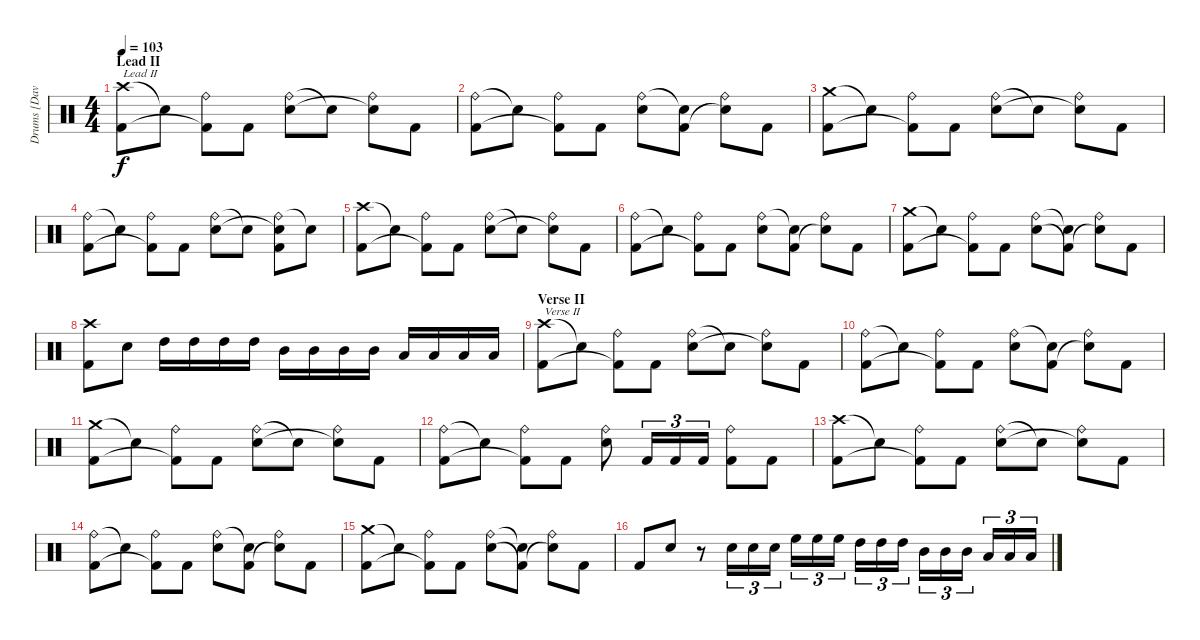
\track ("Drums [Dave Culross]" "Drums [Dav") {instrument percussion}
\staff {score}
\articulation defaults
\ts (4 4)
\section ("" "Lead II")
\tempo 103
\clef neutral
\ks c
("Crash high (hit)" "Kick (hit) 2").8{txt "Lead II" dy f} "Snare (hit)"{t}.8 ("Ride (bell)" "Kick (hit) 2"{t}).8 "Kick (hit) 2".8 ("Ride (bell)" "Electric Snare (hit)").8 "Snare (hit)"{t}.8 ("Ride (bell)" "Snare (hit)"{t}).8 "Kick (hit) 2".8 |
("Ride (bell)" "Kick (hit) 2").8 "Snare (hit)"{t}.8 ("Ride (bell)" "Kick (hit) 2"{t}).8 "Kick (hit) 2".8 ("Ride (bell)" "Electric Snare (hit)").8 ("Snare (hit)"{t} "Kick (hit) 2").8 ("Ride (bell)" "Snare (hit)"{t}).8 "Kick (hit) 2".8 |
("Crash medium (hit)" "Kick (hit) 2").8 "Snare (hit)"{t}.8 ("Ride (bell)" "Kick (hit) 2"{t}).8 "Kick (hit) 2".8 ("Ride (bell)" "Electric Snare (hit)").8 "Snare (hit)"{t}.8 ("Ride (bell)" "Snare (hit)"{t}).8 "Kick (hit) 2".8 |
("Ride (bell)" "Kick (hit) 2").8 "Snare (hit)"{t}.8 ("Ride (bell)" "Kick (hit) 2"{t}).8 "Kick (hit) 2".8 ("Ride (bell)" "Electric Snare (hit)").8 "Snare (hit)"{t}.8 ("Ride (bell)" "Snare (hit)"{t} "Kick (hit) 2").8 "Snare (hit)"{t}.8 |
("Crash high (hit)" "Kick (hit) 2").8 "Snare (hit)"{t}.8 ("Ride (bell)" "Kick (hit) 2"{t}).8 "Kick (hit) 2".8 ("Ride (bell)" "Electric Snare (hit)").8 "Snare (hit)"{t}.8 ("Ride (bell)" "Snare (hit)"{t}).8 "Kick (hit) 2".8 |
("Ride (bell)" "Kick (hit) 2").8 "Snare (hit)"{t}.8 ("Ride (bell)" "Kick (hit) 2"{t}).8 "Kick (hit) 2".8 ("Ride (bell)" "Electric Snare (hit)").8 ("Snare (hit)"{t} "Kick (hit) 2").8 ("Ride (bell)" "Snare (hit)"{t}).8 "Kick (hit) 2".8 |
("Crash medium (hit)" "Kick (hit) 2").8 "Snare (hit)"{t}.8 ("Ride (bell)" "Kick (hit) 2"{t}).8 "Kick (hit) 2".8 ("Ride (bell)" "Electric Snare (hit)").8 ("Snare (hit)"{t} "Kick (hit) 2"{t}).8 ("Ride (bell)" "Snare (hit)"{t}).8 "Kick (hit) 2".8 |
("Crash high (hit)" "Kick (hit) 2").8 "Electric Snare (hit)".8 "High Tom (hit)".16 "High Tom (hit)".16 "High Tom (hit)".16 "High Tom (hit)".16 "Mid Tom (hit)".16 "Mid Tom (hit)".16 "Mid Tom (hit)".16 "Mid Tom (hit)".16 "Low Tom (hit)".16 "Low Tom (hit)".16 "Low Tom (hit)".16 "Low Tom (hit)".16 |
\section ("" "Verse II")
("Crash high (hit)" "Kick (hit) 2").8{txt "Verse II"} "Snare (hit)"{t}.8 ("Ride (bell)" "Kick (hit) 2"{t}).8 "Kick (hit) 2".8 ("Ride (bell)" "Electric Snare (hit)").8 "Snare (hit)"{t}.8 ("Ride (bell)" "Snare (hit)"{t}).8 "Kick (hit) 2".8 |
("Ride (bell)" "Kick (hit) 2").8 "Snare (hit)"{t}.8 ("Ride (bell)" "Kick (hit) 2"{t}).8 "Kick (hit) 2".8 ("Ride (bell)" "Electric Snare (hit)").8 ("Snare (hit)"{t} "Kick (hit) 2").8 ("Ride (bell)" "Snare (hit)"{t}).8 "Kick (hit) 2".8 |
("Crash medium (hit)" "Kick (hit) 2").8 "Snare (hit)"{t}.8 ("Ride (bell)" "Kick (hit) 2"{t}).8 "Kick (hit) 2".8 ("Ride (bell)" "Electric Snare (hit)").8 "Snare (hit)"{t}.8 ("Ride (bell)" "Snare (hit)"{t}).8 "Kick (hit) 2".8 |
("Ride (bell)" "Kick (hit) 2").8 "Snare (hit)"{t}.8 ("Ride (bell)" "Kick (hit) 2"{t}).8 "Kick (hit) 2".8 ("Ride (bell)" "Electric Snare (hit)").8 "Kick (hit) 2".16{tu (3 2)} "Kick (hit) 2".16{tu (3 2)} "Kick (hit) 2".16{tu (3 2)} ("Ride (bell)" "Kick (hit) 2").8 "Kick (hit) 2".8 |
("Crash high (hit)" "Kick (hit) 2").8 "Snare (hit)"{t}.8 ("Ride (bell)" "Kick (hit) 2"{t}).8 "Kick (hit) 2".8 ("Ride (bell)" "Electric Snare (hit)").8 "Snare (hit)"{t}.8 ("Ride (bell)" "Snare (hit)"{t}).8 "Kick (hit) 2".8 |
("Ride (bell)" "Kick (hit) 2").8 "Snare (hit)"{t}.8 ("Ride (bell)" "Kick (hit) 2"{t}).8 "Kick (hit) 2".8 ("Ride (bell)" "Electric Snare (hit)").8 ("Snare (hit)"{t} "Kick (hit) 2").8 ("Ride (bell)" "Snare (hit)"{t}).8 "Kick (hit) 2".8 |
("Crash medium (hit)" "Kick (hit) 2").8 "Snare (hit)"{t}.8 ("Ride (bell)" "Kick (hit) 2"{t}).8 "Kick (hit) 2".8 ("Ride (bell)" "Electric Snare (hit)").8 ("Snare (hit)"{t} "Kick (hit) 2"{t}).8 ("Ride (bell)" "Snare (hit)"{t}).8 "Kick (hit) 2".8 |
"Kick (hit) 2".8 "Electric Snare (hit)".8 r.8 "Electric Snare (hit)".16{tu (3 2)} "Electric Snare (hit)".16{tu (3 2)} "Electric Snare (hit)".16{tu (3 2)} "High Floor Tom (hit)".16{tu (3 2)} "High Floor Tom (hit)".16{tu (3 2)} "High Floor Tom (hit)".16{tu (3 2)} "High Tom (hit)".16{tu (3 2)} "High Tom (hit)".16{tu (3 2)} "High Tom (hit)".16{tu (3 2)} "Mid Tom (hit)".16{tu (3 2)} "Mid Tom (hit)".16{tu (3 2)} "Mid Tom (hit)".16{tu (3 2)} "Low Tom (hit)".16{tu (3 2)} "Low Tom (hit)".16{tu (3 2)} "Low Tom (hit)".16{tu (3 2)}
